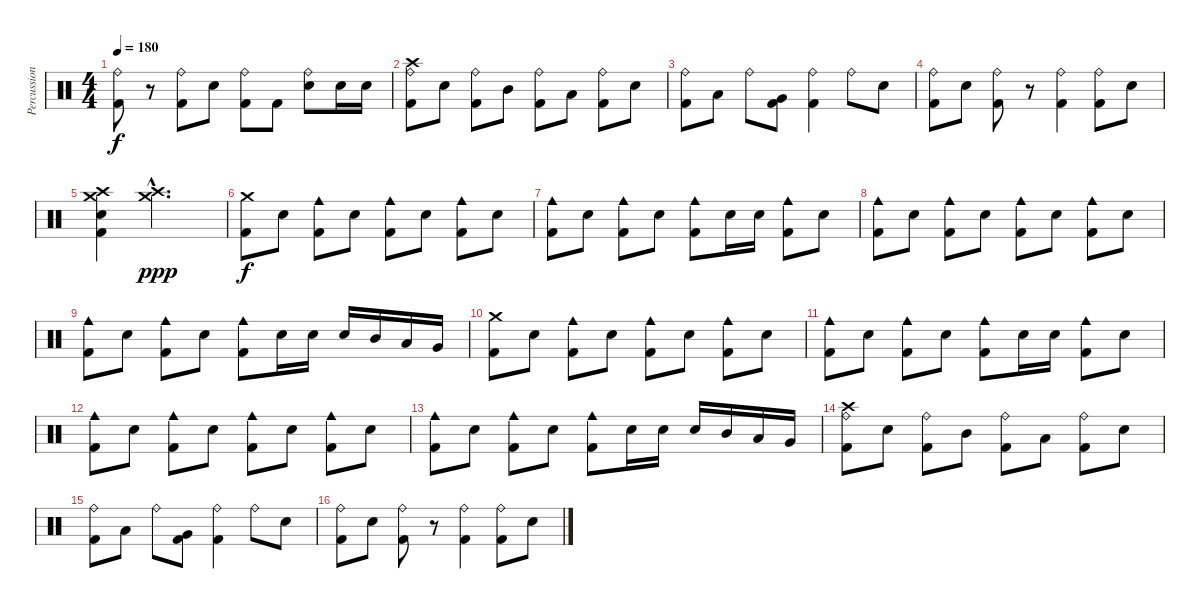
\track ("Percussion" "Percussion") {instrument percussion}
\staff {score}
\articulation defaults
\ts (4 4)
\tempo 180
\clef neutral
\ks c
("Ride (bell)" "Kick (hit) 2").8{dy f} r.8 ("Ride (bell)" "Kick (hit) 2").8 "Snare (hit) 2".8 ("Ride (bell)" "Kick (hit) 2").8 "Kick (hit) 2".8 ("Ride (bell)" "Snare (hit) 2").8 "Snare (hit) 2".16 "Snare (hit) 2".16 |
("Crash high (hit)" "Ride (bell)" "Kick (hit) 2").8 "Snare (hit) 2".8 ("Ride (bell)" "Kick (hit) 2").8 "Mid Tom (hit)".8 ("Ride (bell)" "Kick (hit) 2").8 "Low Tom (hit)".8 ("Ride (bell)" "Kick (hit) 2").8 "Snare (hit) 2".8 |
("Ride (bell)" "Kick (hit) 2").8 "Low Tom (hit)".8 "Ride (bell)".8 ("Very Low Tom (hit)" "Kick (hit) 2").8 ("Ride (bell)" "Kick (hit) 2").4 "Ride (bell)".8 "Snare (hit) 2".8 |
("Ride (bell)" "Kick (hit) 2").8 "Snare (hit) 2".8 ("Ride (bell)" "Kick (hit) 2").8 r.8 ("Ride (bell)" "Kick (hit) 2").4 ("Ride (bell)" "Kick (hit) 2").8 "Snare (hit) 2".8 |
("Crash high (hit)" "Crash medium (hit)" "Snare (hit) 2" "Kick (hit) 2").4 ("Crash high (hit)"{hac} "Crash medium (hit)"{hac}).2{d dy ppp} |
("Crash medium (hit)" "Kick (hit) 2").8{dy f} "Snare (hit) 2".8 ("Cowbell medium (hit)" "Kick (hit) 2").8 "Snare (hit) 2".8 ("Cowbell medium (hit)" "Kick (hit) 2").8 "Snare (hit) 2".8 ("Cowbell medium (hit)" "Kick (hit) 2").8 "Snare (hit) 2".8 |
("Cowbell medium (hit)" "Kick (hit) 2").8 "Snare (hit) 2".8 ("Cowbell medium (hit)" "Kick (hit) 2").8 "Snare (hit) 2".8 ("Cowbell medium (hit)" "Kick (hit) 2").8 "Snare (hit) 2".16 "Snare (hit) 2".16 ("Cowbell medium (hit)" "Kick (hit) 2").8 "Snare (hit) 2".8 |
("Cowbell medium (hit)" "Kick (hit) 2").8 "Snare (hit) 2".8 ("Cowbell medium (hit)" "Kick (hit) 2").8 "Snare (hit) 2".8 ("Cowbell medium (hit)" "Kick (hit) 2").8 "Snare (hit) 2".8 ("Cowbell medium (hit)" "Kick (hit) 2").8 "Snare (hit) 2".8 |
("Cowbell medium (hit)" "Kick (hit) 2").8 "Snare (hit) 2".8 ("Cowbell medium (hit)" "Kick (hit) 2").8 "Snare (hit) 2".8 ("Cowbell medium (hit)" "Kick (hit) 2").8 "Snare (hit) 2".16 "Snare (hit) 2".16 "Snare (hit) 2".16 "Mid Tom (hit)".16 "Low Tom (hit)".16 "Very Low Tom (hit)".16 |
("Crash medium (hit)" "Kick (hit) 2").8 "Snare (hit) 2".8 ("Cowbell medium (hit)" "Kick (hit) 2").8 "Snare (hit) 2".8 ("Cowbell medium (hit)" "Kick (hit) 2").8 "Snare (hit) 2".8 ("Cowbell medium (hit)" "Kick (hit) 2").8 "Snare (hit) 2".8 |
("Cowbell medium (hit)" "Kick (hit) 2").8 "Snare (hit) 2".8 ("Cowbell medium (hit)" "Kick (hit) 2").8 "Snare (hit) 2".8 ("Cowbell medium (hit)" "Kick (hit) 2").8 "Snare (hit) 2".16 "Snare (hit) 2".16 ("Cowbell medium (hit)" "Kick (hit) 2").8 "Snare (hit) 2".8 |
("Cowbell medium (hit)" "Kick (hit) 2").8 "Snare (hit) 2".8 ("Cowbell medium (hit)" "Kick (hit) 2").8 "Snare (hit) 2".8 ("Cowbell medium (hit)" "Kick (hit) 2").8 "Snare (hit) 2".8 ("Cowbell medium (hit)" "Kick (hit) 2").8 "Snare (hit) 2".8 |
("Cowbell medium (hit)" "Kick (hit) 2").8 "Snare (hit) 2".8 ("Cowbell medium (hit)" "Kick (hit) 2").8 "Snare (hit) 2".8 ("Cowbell medium (hit)" "Kick (hit) 2").8 "Snare (hit) 2".16 "Snare (hit) 2".16 "Snare (hit) 2".16 "Mid Tom (hit)".16 "Low Tom (hit)".16 "Very Low Tom (hit)".16 |
("Crash high (hit)" "Ride (bell)" "Kick (hit) 2").8 "Snare (hit) 2".8 ("Ride (bell)" "Kick (hit) 2").8 "Mid Tom (hit)".8 ("Ride (bell)" "Kick (hit) 2").8 "Low Tom (hit)".8 ("Ride (bell)" "Kick (hit) 2").8 "Snare (hit) 2".8 |
("Ride (bell)" "Kick (hit) 2").8 "Low Tom (hit)".8 "Ride (bell)".8 ("Very Low Tom (hit)" "Kick (hit) 2").8 ("Ride (bell)" "Kick (hit) 2").4 "Ride (bell)".8 "Snare (hit) 2".8 |
("Ride (bell)" "Kick (hit) 2").8 "Snare (hit) 2".8 ("Ride (bell)" "Kick (hit) 2").8 r.8 ("Ride (bell)" "Kick (hit) 2").4 ("Ride (bell)" "Kick (hit) 2").8 "Snare (hit) 2".8
